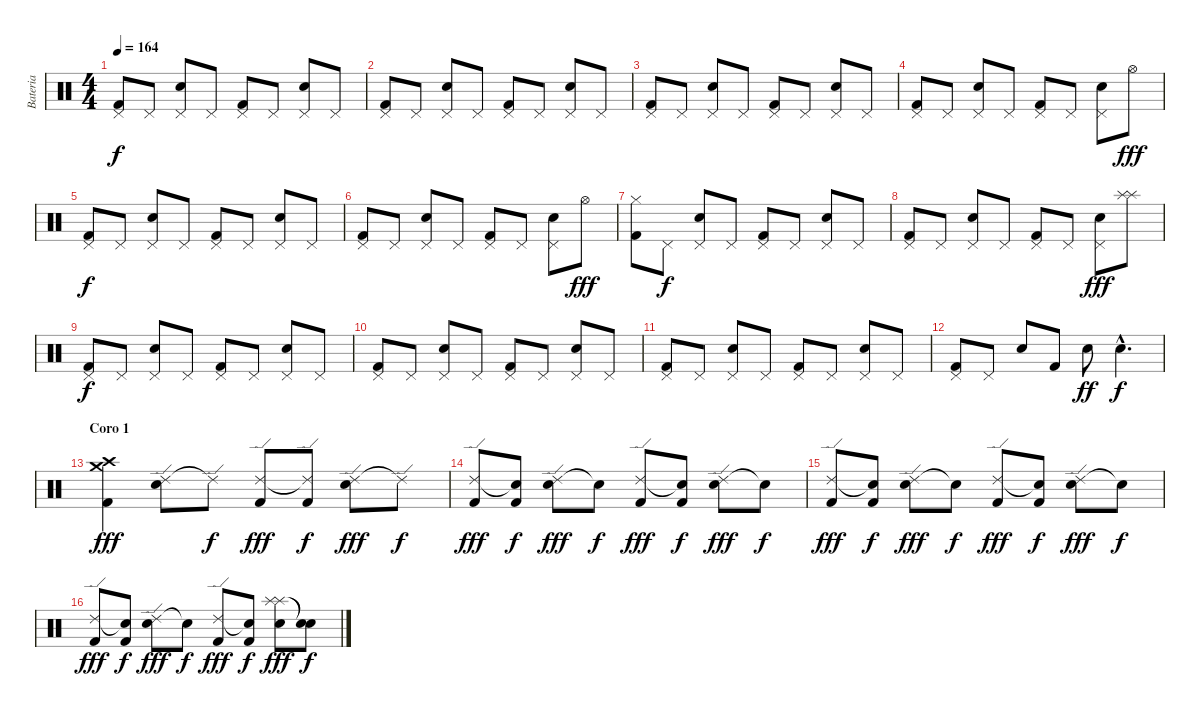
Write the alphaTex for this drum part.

\track ("Bateria" "Bateria") {instrument percussion}
\staff {score}
\articulation defaults
\ts (4 4)
\tempo 164
\clef neutral
\ks c
("Pedal Hi-Hat (hit)" "Kick (hit) 2").8{dy f} "Pedal Hi-Hat (hit)".8 ("Pedal Hi-Hat (hit)" "Electric Snare (hit)").8 "Pedal Hi-Hat (hit)".8 ("Pedal Hi-Hat (hit)" "Kick (hit) 2").8 "Pedal Hi-Hat (hit)".8 ("Pedal Hi-Hat (hit)" "Electric Snare (hit)").8 "Pedal Hi-Hat (hit)".8 |
("Pedal Hi-Hat (hit)" "Kick (hit) 2").8 "Pedal Hi-Hat (hit)".8 ("Pedal Hi-Hat (hit)" "Electric Snare (hit)").8 "Pedal Hi-Hat (hit)".8 ("Pedal Hi-Hat (hit)" "Kick (hit) 2").8 "Pedal Hi-Hat (hit)".8 ("Pedal Hi-Hat (hit)" "Electric Snare (hit)").8 "Pedal Hi-Hat (hit)".8 |
("Pedal Hi-Hat (hit)" "Kick (hit) 2").8 "Pedal Hi-Hat (hit)".8 ("Pedal Hi-Hat (hit)" "Electric Snare (hit)").8 "Pedal Hi-Hat (hit)".8 ("Pedal Hi-Hat (hit)" "Kick (hit) 2").8 "Pedal Hi-Hat (hit)".8 ("Pedal Hi-Hat (hit)" "Electric Snare (hit)").8 "Pedal Hi-Hat (hit)".8 |
("Pedal Hi-Hat (hit)" "Kick (hit) 2").8 "Pedal Hi-Hat (hit)".8 ("Pedal Hi-Hat (hit)" "Electric Snare (hit)").8 "Pedal Hi-Hat (hit)".8 ("Pedal Hi-Hat (hit)" "Kick (hit) 2").8 "Pedal Hi-Hat (hit)".8 ("Pedal Hi-Hat (hit)" "Electric Snare (hit)").8 "Hi-Hat (open)".8{dy fff} |
("Pedal Hi-Hat (hit)" "Kick (hit) 2").8{dy f} "Pedal Hi-Hat (hit)".8 ("Pedal Hi-Hat (hit)" "Electric Snare (hit)").8 "Pedal Hi-Hat (hit)".8 ("Pedal Hi-Hat (hit)" "Kick (hit) 2").8 "Pedal Hi-Hat (hit)".8 ("Pedal Hi-Hat (hit)" "Electric Snare (hit)").8 "Pedal Hi-Hat (hit)".8 |
("Pedal Hi-Hat (hit)" "Kick (hit) 2").8 "Pedal Hi-Hat (hit)".8 ("Pedal Hi-Hat (hit)" "Electric Snare (hit)").8 "Pedal Hi-Hat (hit)".8 ("Pedal Hi-Hat (hit)" "Kick (hit) 2").8 "Pedal Hi-Hat (hit)".8 ("Pedal Hi-Hat (hit)" "Electric Snare (hit)").8 "Hi-Hat (open)".8{dy fff} |
("Hi-Hat (closed)" "Kick (hit) 2").8 "Pedal Hi-Hat (hit)".8{dy f} ("Pedal Hi-Hat (hit)" "Electric Snare (hit)").8 "Pedal Hi-Hat (hit)".8 ("Pedal Hi-Hat (hit)" "Kick (hit) 2").8 "Pedal Hi-Hat (hit)".8 ("Pedal Hi-Hat (hit)" "Electric Snare (hit)").8 "Pedal Hi-Hat (hit)".8 |
("Pedal Hi-Hat (hit)" "Kick (hit) 2").8 "Pedal Hi-Hat (hit)".8 ("Pedal Hi-Hat (hit)" "Electric Snare (hit)").8 "Pedal Hi-Hat (hit)".8 ("Pedal Hi-Hat (hit)" "Kick (hit) 2").8 "Pedal Hi-Hat (hit)".8 ("Pedal Hi-Hat (hit)" "Electric Snare (hit)").8{dy fff} ("Splash (hit)" "Splash (hit)").8 |
("Pedal Hi-Hat (hit)" "Kick (hit) 2").8{dy f} "Pedal Hi-Hat (hit)".8 ("Pedal Hi-Hat (hit)" "Electric Snare (hit)").8 "Pedal Hi-Hat (hit)".8 ("Pedal Hi-Hat (hit)" "Kick (hit) 2").8 "Pedal Hi-Hat (hit)".8 ("Pedal Hi-Hat (hit)" "Electric Snare (hit)").8 "Pedal Hi-Hat (hit)".8 |
("Pedal Hi-Hat (hit)" "Kick (hit) 2").8 "Pedal Hi-Hat (hit)".8 ("Pedal Hi-Hat (hit)" "Electric Snare (hit)").8 "Pedal Hi-Hat (hit)".8 ("Pedal Hi-Hat (hit)" "Kick (hit) 2").8 "Pedal Hi-Hat (hit)".8 ("Pedal Hi-Hat (hit)" "Electric Snare (hit)").8 "Pedal Hi-Hat (hit)".8 |
("Pedal Hi-Hat (hit)" "Kick (hit) 2").8 "Pedal Hi-Hat (hit)".8 ("Pedal Hi-Hat (hit)" "Electric Snare (hit)").8 "Pedal Hi-Hat (hit)".8 ("Pedal Hi-Hat (hit)" "Kick (hit) 2").8 "Pedal Hi-Hat (hit)".8 ("Pedal Hi-Hat (hit)" "Electric Snare (hit)").8 "Pedal Hi-Hat (hit)".8 |
("Pedal Hi-Hat (hit)" "Kick (hit) 2").8 "Pedal Hi-Hat (hit)".8 "Electric Snare (hit)".8 "Kick (hit) 2".8 "Electric Snare (hit)".8{dy ff} "Electric Snare (hit)"{hac}.4{d dy f} |
\section ("" "Coro 1")
("Crash medium (hit)" "Crash high (hit)" "Kick (hit) 2").4{dy fff} ("Ride (edge) 2" "Electric Snare (hit)").8 "Ride (edge) 2"{t}.8{dy f} ("Ride (edge) 2" "Kick (hit) 2").8{dy fff} ("Ride (edge) 2"{t} "Kick (hit) 2").8{dy f} ("Ride (edge) 2" "Electric Snare (hit)").8{dy fff} "Ride (edge) 2"{t}.8{dy f} |
("Ride (edge) 2" "Kick (hit) 2").8{dy fff} ("Snare (hit)"{t} "Kick (hit) 2").8{dy f} ("Ride (edge) 2" "Electric Snare (hit)").8{dy fff} "Snare (hit)"{t}.8{dy f} ("Ride (edge) 2" "Kick (hit) 2").8{dy fff} ("Snare (hit)"{t} "Kick (hit) 2").8{dy f} ("Ride (edge) 2" "Electric Snare (hit)").8{dy fff} "Snare (hit)"{t}.8{dy f} |
("Ride (edge) 2" "Kick (hit) 2").8{dy fff} ("Snare (hit)"{t} "Kick (hit) 2").8{dy f} ("Ride (edge) 2" "Electric Snare (hit)").8{dy fff} "Snare (hit)"{t}.8{dy f} ("Ride (edge) 2" "Kick (hit) 2").8{dy fff} ("Snare (hit)"{t} "Kick (hit) 2").8{dy f} ("Ride (edge) 2" "Electric Snare (hit)").8{dy fff} "Snare (hit)"{t}.8{dy f} |
("Ride (edge) 2" "Kick (hit) 2").8{dy fff} ("Snare (hit)"{t} "Kick (hit) 2").8{dy f} ("Ride (edge) 2" "Electric Snare (hit)").8{dy fff} "Snare (hit)"{t}.8{dy f} ("Ride (edge) 2" "Kick (hit) 2").8{dy fff} ("Snare (hit)"{t} "Kick (hit) 2").8{dy f} ("Splash (hit)" "Splash (hit)" "Electric Snare (hit)").8{dy fff} ("Snare (hit)"{t} "Snare (hit)"{t}).8{dy f}
